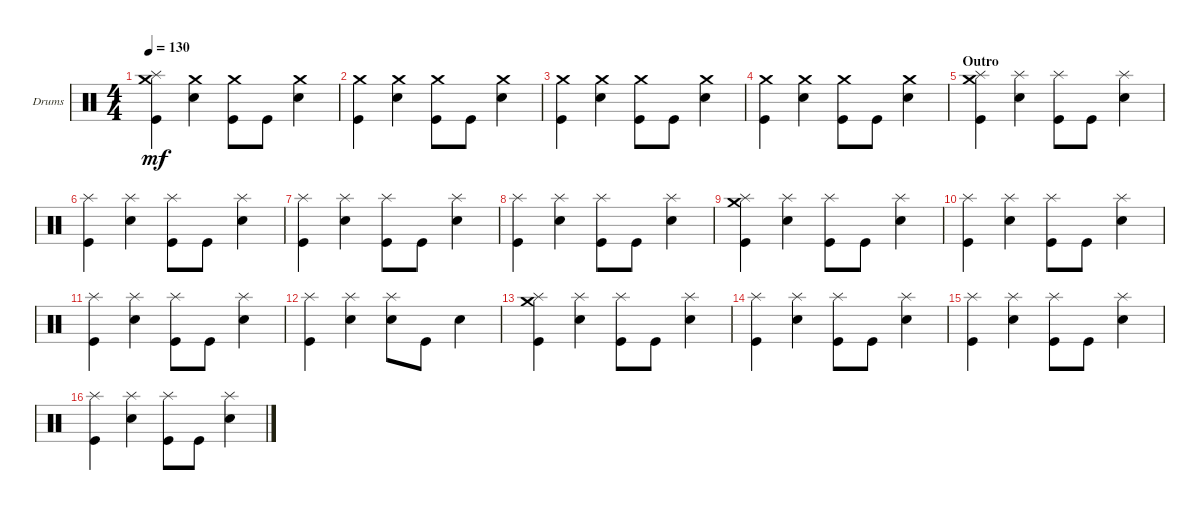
\defaultSystemsLayout 4
\bracketExtendMode groupsimilarinstruments
\firstSystemTrackNameOrientation horizontal
\otherSystemsTrackNameOrientation horizontal
\track ("Drums" "Drums") {instrument percussion}
\staff {score}
\articulation defaults
\ts (4 4)
\tempo 130
\clef neutral
\ks c
("Kick (hit)" "Splash (hit)" "Crash medium (hit)").4{dy mf} ("Snare (hit) 2" "Crash medium (hit)").4 ("Kick (hit)" "Crash medium (hit)").8 "Kick (hit)".8 ("Snare (hit) 2" "Crash medium (hit)").4 |
("Kick (hit)" "Crash medium (hit)").4 ("Snare (hit) 2" "Crash medium (hit)").4 ("Kick (hit)" "Crash medium (hit)").8 "Kick (hit)".8 ("Snare (hit) 2" "Crash medium (hit)").4 |
("Kick (hit)" "Crash medium (hit)").4 ("Snare (hit) 2" "Crash medium (hit)").4 ("Kick (hit)" "Crash medium (hit)").8 "Kick (hit)".8 ("Snare (hit) 2" "Crash medium (hit)").4 |
("Kick (hit)" "Crash medium (hit)").4 ("Snare (hit) 2" "Crash medium (hit)").4 ("Kick (hit)" "Crash medium (hit)").8 "Kick (hit)".8 ("Snare (hit) 2" "Crash medium (hit)").4 |
\section ("" "Outro")
("Kick (hit)" "Splash (hit)" "Crash medium (hit)").4 ("Snare (hit) 2" "Splash (hit)").4 ("Kick (hit)" "Splash (hit)").8 "Kick (hit)".8 ("Snare (hit) 2" "Splash (hit)").4 |
("Kick (hit)" "Splash (hit)").4 ("Snare (hit) 2" "Splash (hit)").4 ("Kick (hit)" "Splash (hit)").8 "Kick (hit)".8 ("Snare (hit) 2" "Splash (hit)").4 |
("Kick (hit)" "Splash (hit)").4 ("Snare (hit) 2" "Splash (hit)").4 ("Kick (hit)" "Splash (hit)").8 "Kick (hit)".8 ("Snare (hit) 2" "Splash (hit)").4 |
("Kick (hit)" "Splash (hit)").4 ("Snare (hit) 2" "Splash (hit)").4 ("Kick (hit)" "Splash (hit)").8 "Kick (hit)".8 ("Snare (hit) 2" "Splash (hit)").4 |
("Kick (hit)" "Splash (hit)" "Crash medium (hit)").4 ("Snare (hit) 2" "Splash (hit)").4 ("Kick (hit)" "Splash (hit)").8 "Kick (hit)".8 ("Snare (hit) 2" "Splash (hit)").4 |
("Kick (hit)" "Splash (hit)").4 ("Snare (hit) 2" "Splash (hit)").4 ("Kick (hit)" "Splash (hit)").8 "Kick (hit)".8 ("Snare (hit) 2" "Splash (hit)").4 |
("Kick (hit)" "Splash (hit)").4 ("Snare (hit) 2" "Splash (hit)").4 ("Kick (hit)" "Splash (hit)").8 "Kick (hit)".8 ("Snare (hit) 2" "Splash (hit)").4 |
("Kick (hit)" "Splash (hit)").4 ("Snare (hit) 2" "Splash (hit)").4 ("Splash (hit)" "Snare (hit) 2").8 "Kick (hit)".8 "Snare (hit) 2".4 |
("Kick (hit)" "Splash (hit)" "Crash medium (hit)").4 ("Snare (hit) 2" "Splash (hit)").4 ("Kick (hit)" "Splash (hit)").8 "Kick (hit)".8 ("Snare (hit) 2" "Splash (hit)").4 |
("Kick (hit)" "Splash (hit)").4 ("Snare (hit) 2" "Splash (hit)").4 ("Kick (hit)" "Splash (hit)").8 "Kick (hit)".8 ("Snare (hit) 2" "Splash (hit)").4 |
("Kick (hit)" "Splash (hit)").4 ("Snare (hit) 2" "Splash (hit)").4 ("Kick (hit)" "Splash (hit)").8 "Kick (hit)".8 ("Snare (hit) 2" "Splash (hit)").4 |
("Kick (hit)" "Splash (hit)").4 ("Snare (hit) 2" "Splash (hit)").4 ("Kick (hit)" "Splash (hit)").8 "Kick (hit)".8 ("Snare (hit) 2" "Splash (hit)").4
